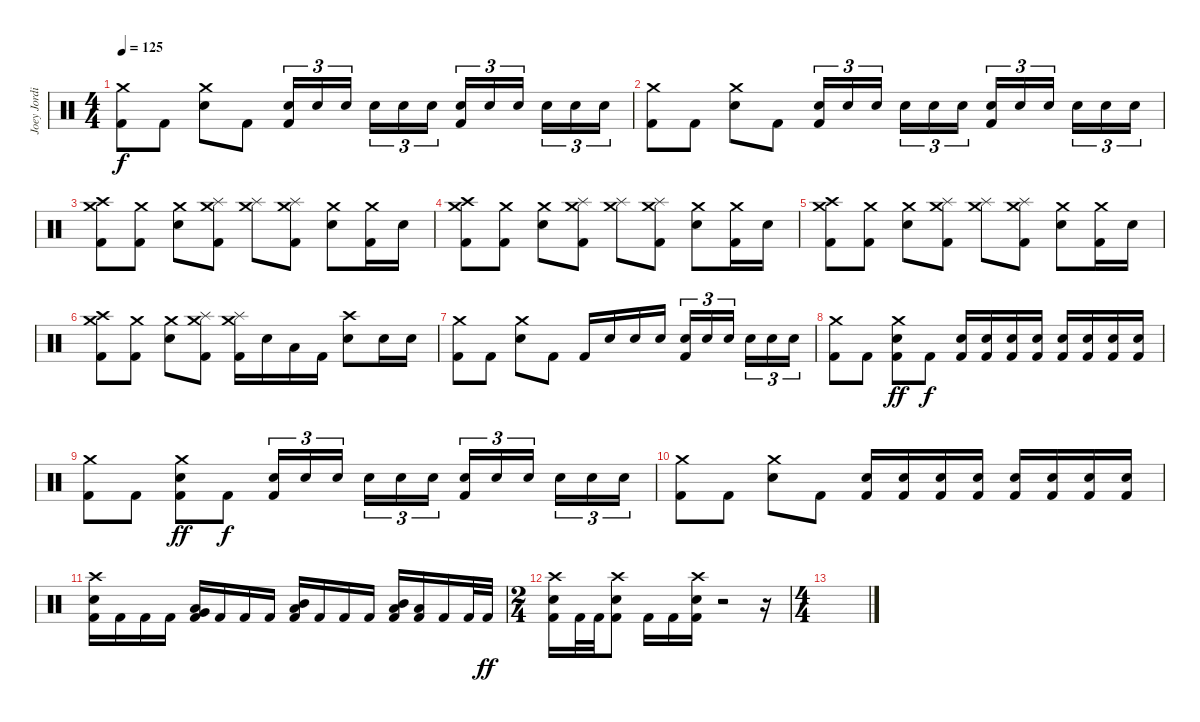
\track ("Joey Jordison" "Joey Jordi") {instrument percussion}
\staff {score}
\articulation defaults
\ts (4 4)
\tempo 125
\clef neutral
\ks c
("Crash medium (hit)" "Kick (hit) 2").8{dy f} "Kick (hit) 2".8 ("Crash medium (hit)" "Snare (hit) 2").8 "Kick (hit) 2".8 ("Snare (hit) 2" "Kick (hit) 2").16{tu (3 2)} "Snare (hit) 2".16{tu (3 2)} "Snare (hit) 2".16{tu (3 2) beam splitsecondary} "Snare (hit) 2".16{tu (3 2)} "Snare (hit) 2".16{tu (3 2)} "Snare (hit) 2".16{tu (3 2)} ("Snare (hit) 2" "Kick (hit) 2").16{tu (3 2)} "Snare (hit) 2".16{tu (3 2)} "Snare (hit) 2".16{tu (3 2) beam splitsecondary} "Snare (hit) 2".16{tu (3 2)} "Snare (hit) 2".16{tu (3 2)} "Snare (hit) 2".16{tu (3 2)} |
("Crash medium (hit)" "Kick (hit) 2").8 "Kick (hit) 2".8 ("Crash medium (hit)" "Snare (hit) 2").8 "Kick (hit) 2".8 ("Snare (hit) 2" "Kick (hit) 2").16{tu (3 2)} "Snare (hit) 2".16{tu (3 2)} "Snare (hit) 2".16{tu (3 2) beam splitsecondary} "Snare (hit) 2".16{tu (3 2)} "Snare (hit) 2".16{tu (3 2)} "Snare (hit) 2".16{tu (3 2)} ("Snare (hit) 2" "Kick (hit) 2").16{tu (3 2)} "Snare (hit) 2".16{tu (3 2)} "Snare (hit) 2".16{tu (3 2) beam splitsecondary} "Snare (hit) 2".16{tu (3 2)} "Snare (hit) 2".16{tu (3 2)} "Snare (hit) 2".16{tu (3 2)} |
("Crash medium (hit)" "Crash high (hit)" "Kick (hit) 2").8 ("Crash medium (hit)" "Kick (hit) 2").8 ("Crash medium (hit)" "Snare (hit) 2").8 ("Crash medium (hit)" "Splash (hit)" "Kick (hit) 2").8 ("Crash medium (hit)" "Splash (hit)").8 ("Crash medium (hit)" "Splash (hit)" "Kick (hit) 2").8 ("Crash medium (hit)" "Snare (hit) 2").8 ("Crash medium (hit)" "Kick (hit) 2").16 "Snare (hit) 2".16 |
("Crash medium (hit)" "Crash high (hit)" "Kick (hit) 2").8 ("Crash medium (hit)" "Kick (hit) 2").8 ("Crash medium (hit)" "Snare (hit) 2").8 ("Crash medium (hit)" "Splash (hit)" "Kick (hit) 2").8 ("Crash medium (hit)" "Splash (hit)").8 ("Crash medium (hit)" "Splash (hit)" "Kick (hit) 2").8 ("Crash medium (hit)" "Snare (hit) 2").8 ("Crash medium (hit)" "Kick (hit) 2").16 "Snare (hit) 2".16 |
("Crash medium (hit)" "Crash high (hit)" "Kick (hit) 2").8 ("Crash medium (hit)" "Kick (hit) 2").8 ("Crash medium (hit)" "Snare (hit) 2").8 ("Crash medium (hit)" "Splash (hit)" "Kick (hit) 2").8 ("Crash medium (hit)" "Splash (hit)").8 ("Crash medium (hit)" "Splash (hit)" "Kick (hit) 2").8 ("Crash medium (hit)" "Snare (hit) 2").8 ("Crash medium (hit)" "Kick (hit) 2").16 "Snare (hit) 2".16 |
("Crash medium (hit)" "Crash high (hit)" "Kick (hit) 2").8 ("Crash medium (hit)" "Kick (hit) 2").8 ("Crash medium (hit)" "Snare (hit) 2").8 ("Crash medium (hit)" "Splash (hit)" "Kick (hit) 2").8 ("Crash medium (hit)" "Splash (hit)" "Kick (hit) 2").16 "Snare (hit) 2".16 "Low Tom (hit)".16 "Kick (hit) 2".16 ("Crash high (hit)" "Snare (hit) 2").8 "Snare (hit) 2".16 "Snare (hit) 2".16 |
("Crash medium (hit)" "Kick (hit) 2").8 "Kick (hit) 2".8 ("Crash medium (hit)" "Snare (hit) 2").8 "Kick (hit) 2".8 "Kick (hit) 2".16 "Snare (hit) 2".16 "Snare (hit) 2".16 "Snare (hit) 2".16 ("Snare (hit) 2" "Kick (hit) 2").16{tu (3 2)} "Snare (hit) 2".16{tu (3 2)} "Snare (hit) 2".16{tu (3 2) beam splitsecondary} "Snare (hit) 2".16{tu (3 2)} "Snare (hit) 2".16{tu (3 2)} "Snare (hit) 2".16{tu (3 2)} |
("Crash medium (hit)" "Kick (hit) 2").8 "Kick (hit) 2".8 ("Crash medium (hit)" "Snare (hit) 2" "Kick (hit) 2").8{dy ff} "Kick (hit) 2".8{dy f} ("Snare (hit) 2" "Kick (hit) 2").16 ("Snare (hit) 2" "Kick (hit) 2").16 ("Snare (hit) 2" "Kick (hit) 2").16 ("Snare (hit) 2" "Kick (hit) 2").16 ("Snare (hit) 2" "Kick (hit) 2").16 ("Snare (hit) 2" "Kick (hit) 2").16 ("Snare (hit) 2" "Kick (hit) 2").16 ("Snare (hit) 2" "Kick (hit) 2").16 |
("Crash medium (hit)" "Kick (hit) 2").8 "Kick (hit) 2".8 ("Crash medium (hit)" "Snare (hit) 2" "Kick (hit) 2").8{dy ff} "Kick (hit) 2".8{dy f} ("Snare (hit) 2" "Kick (hit) 2").16{tu (3 2)} "Snare (hit) 2".16{tu (3 2)} "Snare (hit) 2".16{tu (3 2) beam splitsecondary} "Snare (hit) 2".16{tu (3 2)} "Snare (hit) 2".16{tu (3 2)} "Snare (hit) 2".16{tu (3 2)} ("Snare (hit) 2" "Kick (hit) 2").16{tu (3 2)} "Snare (hit) 2".16{tu (3 2)} "Snare (hit) 2".16{tu (3 2) beam splitsecondary} "Snare (hit) 2".16{tu (3 2)} "Snare (hit) 2".16{tu (3 2)} "Snare (hit) 2".16{tu (3 2)} |
("Crash medium (hit)" "Kick (hit) 2").8 "Kick (hit) 2".8 ("Crash medium (hit)" "Snare (hit) 2").8 "Kick (hit) 2".8 ("Snare (hit) 2" "Kick (hit) 2").16 ("Snare (hit) 2" "Kick (hit) 2").16 ("Snare (hit) 2" "Kick (hit) 2").16 ("Snare (hit) 2" "Kick (hit) 2").16 ("Snare (hit) 2" "Kick (hit) 2").16 ("Snare (hit) 2" "Kick (hit) 2").16 ("Snare (hit) 2" "Kick (hit) 2").16 ("Snare (hit) 2" "Kick (hit) 2").16 |
("Crash high (hit)" "Snare (hit) 2" "Kick (hit) 2").16 "Kick (hit) 2".16 "Kick (hit) 2".16 "Kick (hit) 2".16 ("Very Low Tom (hit)" "Low Floor Tom (hit)" "Kick (hit) 2").16 "Kick (hit) 2".16 "Kick (hit) 2".16 "Kick (hit) 2".16 ("Mid Tom (hit)" "Low Tom (hit)" "Kick (hit) 2").16 "Kick (hit) 2".16 "Kick (hit) 2".16 "Kick (hit) 2".16 ("Mid Tom (hit)" "Low Tom (hit)" "Kick (hit) 2").16 ("Low Tom (hit)" "Kick (hit) 2").16 "Kick (hit) 2".16 "Kick (hit) 2".32 "Kick (hit) 2".32{dy ff} |
\ts (2 4)
("Crash high (hit)" "Snare (hit) 2" "Kick (hit) 2").16 "Kick (hit) 2".32 "Kick (hit) 2".32 ("Crash high (hit)" "Snare (hit) 2" "Kick (hit) 2").8 "Kick (hit) 2".16 "Kick (hit) 2".16 ("Crash high (hit)" "Snare (hit) 2" "Kick (hit) 2").16 r.2 r.16 |
\ts (4 4)
